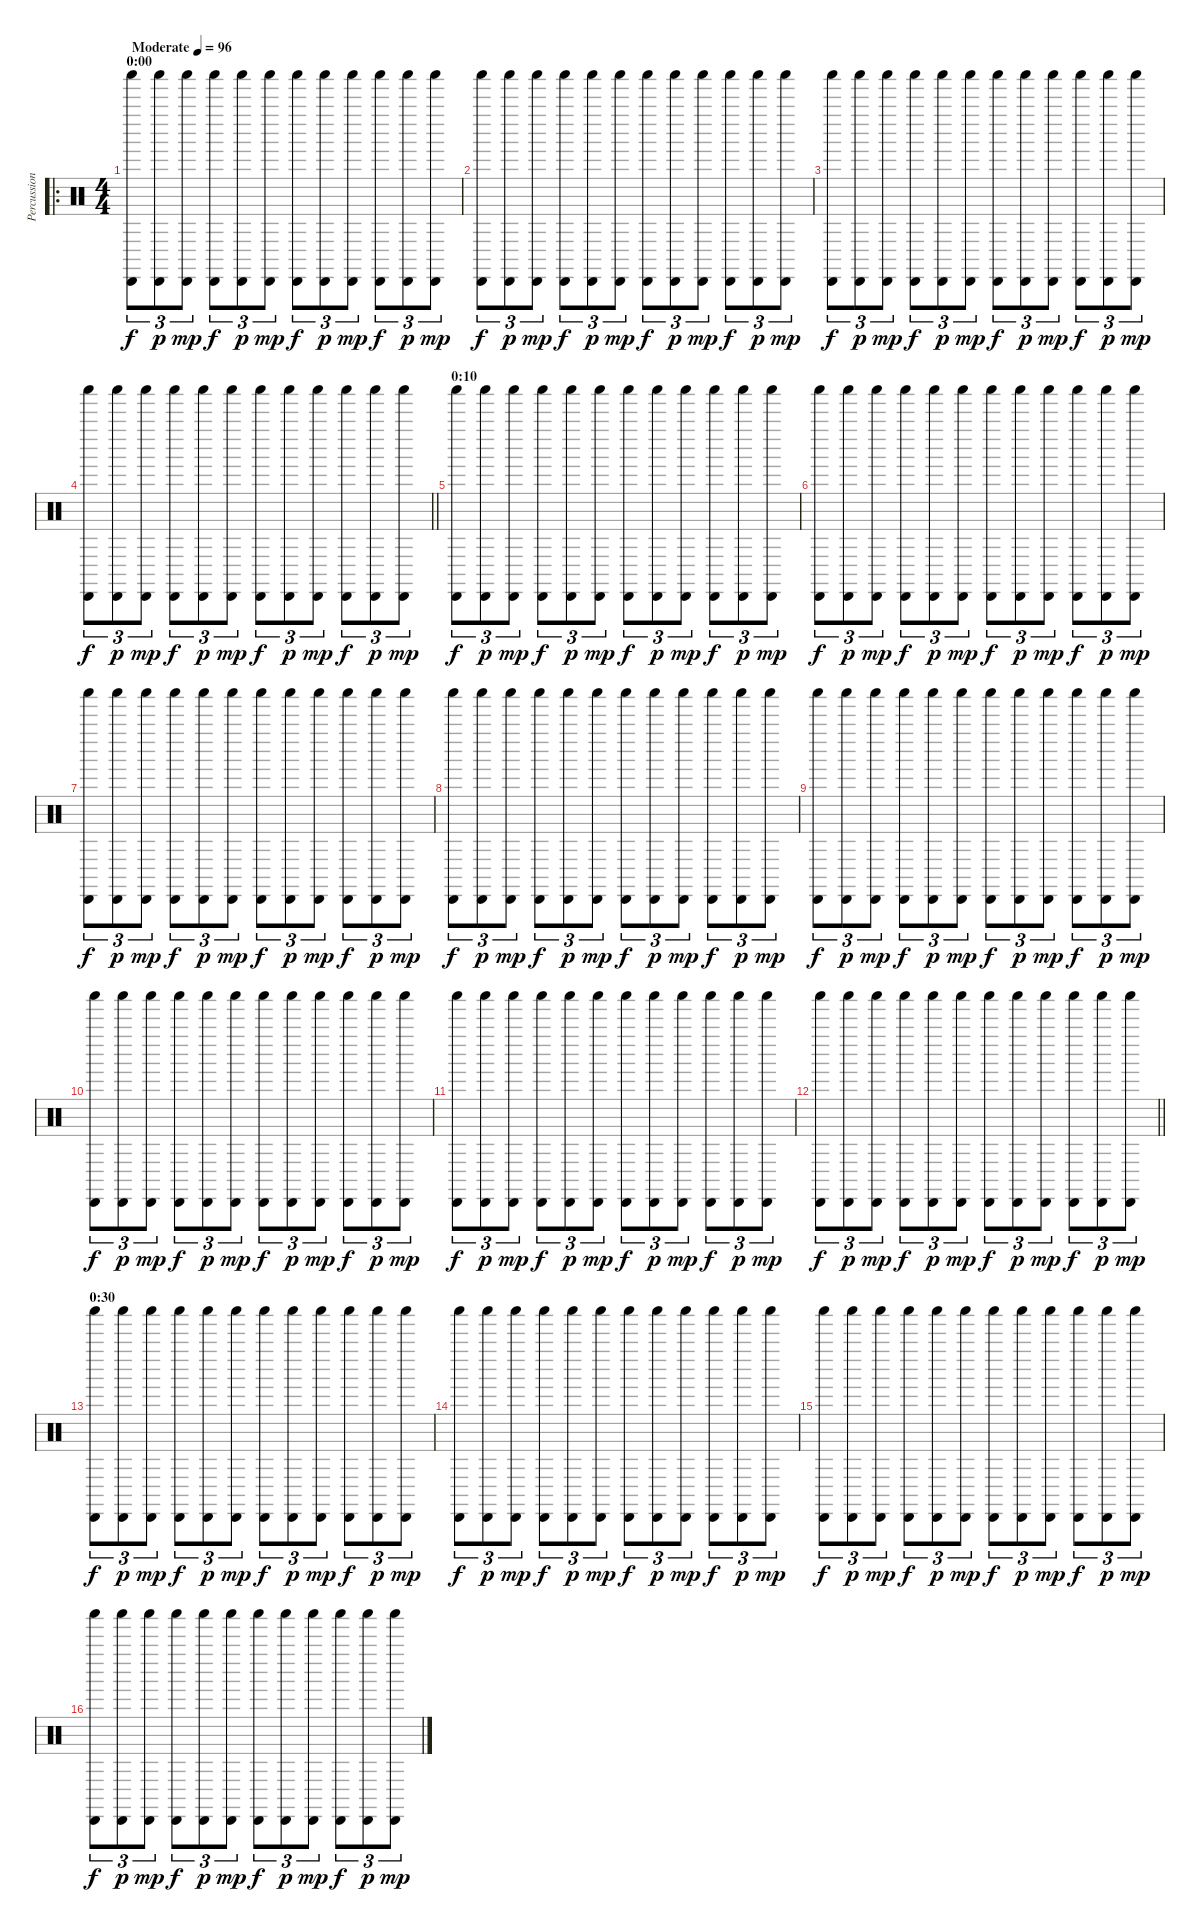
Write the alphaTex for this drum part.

\track ("Percussion" "Percussion") {instrument percussion}
\staff {score}
\articulation defaults
\ro
\ts (4 4)
\section ("" "0:00")
\tempo (96 "Moderate")
\clef neutral
\ks c
("Shaker (hit)" "Cabasa (hit)").8{tu (3 2) dy f} ("Shaker (hit)" "Cabasa (hit)").8{tu (3 2) dy p} ("Shaker (hit)" "Cabasa (hit)").8{tu (3 2) dy mp} ("Shaker (hit)" "Cabasa (hit)").8{tu (3 2) dy f} ("Shaker (hit)" "Cabasa (hit)").8{tu (3 2) dy p} ("Shaker (hit)" "Cabasa (hit)").8{tu (3 2) dy mp} ("Shaker (hit)" "Cabasa (hit)").8{tu (3 2) dy f} ("Shaker (hit)" "Cabasa (hit)").8{tu (3 2) dy p} ("Shaker (hit)" "Cabasa (hit)").8{tu (3 2) dy mp} ("Shaker (hit)" "Cabasa (hit)").8{tu (3 2) dy f} ("Shaker (hit)" "Cabasa (hit)").8{tu (3 2) dy p} ("Shaker (hit)" "Cabasa (hit)").8{tu (3 2) dy mp} |
("Shaker (hit)" "Cabasa (hit)").8{tu (3 2) dy f} ("Shaker (hit)" "Cabasa (hit)").8{tu (3 2) dy p} ("Shaker (hit)" "Cabasa (hit)").8{tu (3 2) dy mp} ("Shaker (hit)" "Cabasa (hit)").8{tu (3 2) dy f} ("Shaker (hit)" "Cabasa (hit)").8{tu (3 2) dy p} ("Shaker (hit)" "Cabasa (hit)").8{tu (3 2) dy mp} ("Shaker (hit)" "Cabasa (hit)").8{tu (3 2) dy f} ("Shaker (hit)" "Cabasa (hit)").8{tu (3 2) dy p} ("Shaker (hit)" "Cabasa (hit)").8{tu (3 2) dy mp} ("Shaker (hit)" "Cabasa (hit)").8{tu (3 2) dy f} ("Shaker (hit)" "Cabasa (hit)").8{tu (3 2) dy p} ("Shaker (hit)" "Cabasa (hit)").8{tu (3 2) dy mp} |
("Shaker (hit)" "Cabasa (hit)").8{tu (3 2) dy f} ("Shaker (hit)" "Cabasa (hit)").8{tu (3 2) dy p} ("Shaker (hit)" "Cabasa (hit)").8{tu (3 2) dy mp} ("Shaker (hit)" "Cabasa (hit)").8{tu (3 2) dy f} ("Shaker (hit)" "Cabasa (hit)").8{tu (3 2) dy p} ("Shaker (hit)" "Cabasa (hit)").8{tu (3 2) dy mp} ("Shaker (hit)" "Cabasa (hit)").8{tu (3 2) dy f} ("Shaker (hit)" "Cabasa (hit)").8{tu (3 2) dy p} ("Shaker (hit)" "Cabasa (hit)").8{tu (3 2) dy mp} ("Shaker (hit)" "Cabasa (hit)").8{tu (3 2) dy f} ("Shaker (hit)" "Cabasa (hit)").8{tu (3 2) dy p} ("Shaker (hit)" "Cabasa (hit)").8{tu (3 2) dy mp} |
\barLineRight lightlight
("Shaker (hit)" "Cabasa (hit)").8{tu (3 2) dy f} ("Shaker (hit)" "Cabasa (hit)").8{tu (3 2) dy p} ("Shaker (hit)" "Cabasa (hit)").8{tu (3 2) dy mp} ("Shaker (hit)" "Cabasa (hit)").8{tu (3 2) dy f} ("Shaker (hit)" "Cabasa (hit)").8{tu (3 2) dy p} ("Shaker (hit)" "Cabasa (hit)").8{tu (3 2) dy mp} ("Shaker (hit)" "Cabasa (hit)").8{tu (3 2) dy f} ("Shaker (hit)" "Cabasa (hit)").8{tu (3 2) dy p} ("Shaker (hit)" "Cabasa (hit)").8{tu (3 2) dy mp} ("Shaker (hit)" "Cabasa (hit)").8{tu (3 2) dy f} ("Shaker (hit)" "Cabasa (hit)").8{tu (3 2) dy p} ("Shaker (hit)" "Cabasa (hit)").8{tu (3 2) dy mp} |
\section ("" "0:10")
("Shaker (hit)" "Cabasa (hit)").8{tu (3 2) dy f} ("Shaker (hit)" "Cabasa (hit)").8{tu (3 2) dy p} ("Shaker (hit)" "Cabasa (hit)").8{tu (3 2) dy mp} ("Shaker (hit)" "Cabasa (hit)").8{tu (3 2) dy f} ("Shaker (hit)" "Cabasa (hit)").8{tu (3 2) dy p} ("Shaker (hit)" "Cabasa (hit)").8{tu (3 2) dy mp} ("Shaker (hit)" "Cabasa (hit)").8{tu (3 2) dy f} ("Shaker (hit)" "Cabasa (hit)").8{tu (3 2) dy p} ("Shaker (hit)" "Cabasa (hit)").8{tu (3 2) dy mp} ("Shaker (hit)" "Cabasa (hit)").8{tu (3 2) dy f} ("Shaker (hit)" "Cabasa (hit)").8{tu (3 2) dy p} ("Shaker (hit)" "Cabasa (hit)").8{tu (3 2) dy mp} |
("Shaker (hit)" "Cabasa (hit)").8{tu (3 2) dy f} ("Shaker (hit)" "Cabasa (hit)").8{tu (3 2) dy p} ("Shaker (hit)" "Cabasa (hit)").8{tu (3 2) dy mp} ("Shaker (hit)" "Cabasa (hit)").8{tu (3 2) dy f} ("Shaker (hit)" "Cabasa (hit)").8{tu (3 2) dy p} ("Shaker (hit)" "Cabasa (hit)").8{tu (3 2) dy mp} ("Shaker (hit)" "Cabasa (hit)").8{tu (3 2) dy f} ("Shaker (hit)" "Cabasa (hit)").8{tu (3 2) dy p} ("Shaker (hit)" "Cabasa (hit)").8{tu (3 2) dy mp} ("Shaker (hit)" "Cabasa (hit)").8{tu (3 2) dy f} ("Shaker (hit)" "Cabasa (hit)").8{tu (3 2) dy p} ("Shaker (hit)" "Cabasa (hit)").8{tu (3 2) dy mp} |
("Shaker (hit)" "Cabasa (hit)").8{tu (3 2) dy f} ("Shaker (hit)" "Cabasa (hit)").8{tu (3 2) dy p} ("Shaker (hit)" "Cabasa (hit)").8{tu (3 2) dy mp} ("Shaker (hit)" "Cabasa (hit)").8{tu (3 2) dy f} ("Shaker (hit)" "Cabasa (hit)").8{tu (3 2) dy p} ("Shaker (hit)" "Cabasa (hit)").8{tu (3 2) dy mp} ("Shaker (hit)" "Cabasa (hit)").8{tu (3 2) dy f} ("Shaker (hit)" "Cabasa (hit)").8{tu (3 2) dy p} ("Shaker (hit)" "Cabasa (hit)").8{tu (3 2) dy mp} ("Shaker (hit)" "Cabasa (hit)").8{tu (3 2) dy f} ("Shaker (hit)" "Cabasa (hit)").8{tu (3 2) dy p} ("Shaker (hit)" "Cabasa (hit)").8{tu (3 2) dy mp} |
("Shaker (hit)" "Cabasa (hit)").8{tu (3 2) dy f} ("Shaker (hit)" "Cabasa (hit)").8{tu (3 2) dy p} ("Shaker (hit)" "Cabasa (hit)").8{tu (3 2) dy mp} ("Shaker (hit)" "Cabasa (hit)").8{tu (3 2) dy f} ("Shaker (hit)" "Cabasa (hit)").8{tu (3 2) dy p} ("Shaker (hit)" "Cabasa (hit)").8{tu (3 2) dy mp} ("Shaker (hit)" "Cabasa (hit)").8{tu (3 2) dy f} ("Shaker (hit)" "Cabasa (hit)").8{tu (3 2) dy p} ("Shaker (hit)" "Cabasa (hit)").8{tu (3 2) dy mp} ("Shaker (hit)" "Cabasa (hit)").8{tu (3 2) dy f} ("Shaker (hit)" "Cabasa (hit)").8{tu (3 2) dy p} ("Shaker (hit)" "Cabasa (hit)").8{tu (3 2) dy mp} |
("Shaker (hit)" "Cabasa (hit)").8{tu (3 2) dy f} ("Shaker (hit)" "Cabasa (hit)").8{tu (3 2) dy p} ("Shaker (hit)" "Cabasa (hit)").8{tu (3 2) dy mp} ("Shaker (hit)" "Cabasa (hit)").8{tu (3 2) dy f} ("Shaker (hit)" "Cabasa (hit)").8{tu (3 2) dy p} ("Shaker (hit)" "Cabasa (hit)").8{tu (3 2) dy mp} ("Shaker (hit)" "Cabasa (hit)").8{tu (3 2) dy f} ("Shaker (hit)" "Cabasa (hit)").8{tu (3 2) dy p} ("Shaker (hit)" "Cabasa (hit)").8{tu (3 2) dy mp} ("Shaker (hit)" "Cabasa (hit)").8{tu (3 2) dy f} ("Shaker (hit)" "Cabasa (hit)").8{tu (3 2) dy p} ("Shaker (hit)" "Cabasa (hit)").8{tu (3 2) dy mp} |
("Shaker (hit)" "Cabasa (hit)").8{tu (3 2) dy f} ("Shaker (hit)" "Cabasa (hit)").8{tu (3 2) dy p} ("Shaker (hit)" "Cabasa (hit)").8{tu (3 2) dy mp} ("Shaker (hit)" "Cabasa (hit)").8{tu (3 2) dy f} ("Shaker (hit)" "Cabasa (hit)").8{tu (3 2) dy p} ("Shaker (hit)" "Cabasa (hit)").8{tu (3 2) dy mp} ("Shaker (hit)" "Cabasa (hit)").8{tu (3 2) dy f} ("Shaker (hit)" "Cabasa (hit)").8{tu (3 2) dy p} ("Shaker (hit)" "Cabasa (hit)").8{tu (3 2) dy mp} ("Shaker (hit)" "Cabasa (hit)").8{tu (3 2) dy f} ("Shaker (hit)" "Cabasa (hit)").8{tu (3 2) dy p} ("Shaker (hit)" "Cabasa (hit)").8{tu (3 2) dy mp} |
("Shaker (hit)" "Cabasa (hit)").8{tu (3 2) dy f} ("Shaker (hit)" "Cabasa (hit)").8{tu (3 2) dy p} ("Shaker (hit)" "Cabasa (hit)").8{tu (3 2) dy mp} ("Shaker (hit)" "Cabasa (hit)").8{tu (3 2) dy f} ("Shaker (hit)" "Cabasa (hit)").8{tu (3 2) dy p} ("Shaker (hit)" "Cabasa (hit)").8{tu (3 2) dy mp} ("Shaker (hit)" "Cabasa (hit)").8{tu (3 2) dy f} ("Shaker (hit)" "Cabasa (hit)").8{tu (3 2) dy p} ("Shaker (hit)" "Cabasa (hit)").8{tu (3 2) dy mp} ("Shaker (hit)" "Cabasa (hit)").8{tu (3 2) dy f} ("Shaker (hit)" "Cabasa (hit)").8{tu (3 2) dy p} ("Shaker (hit)" "Cabasa (hit)").8{tu (3 2) dy mp} |
\barLineRight lightlight
("Shaker (hit)" "Cabasa (hit)").8{tu (3 2) dy f} ("Shaker (hit)" "Cabasa (hit)").8{tu (3 2) dy p} ("Shaker (hit)" "Cabasa (hit)").8{tu (3 2) dy mp} ("Shaker (hit)" "Cabasa (hit)").8{tu (3 2) dy f} ("Shaker (hit)" "Cabasa (hit)").8{tu (3 2) dy p} ("Shaker (hit)" "Cabasa (hit)").8{tu (3 2) dy mp} ("Shaker (hit)" "Cabasa (hit)").8{tu (3 2) dy f} ("Shaker (hit)" "Cabasa (hit)").8{tu (3 2) dy p} ("Shaker (hit)" "Cabasa (hit)").8{tu (3 2) dy mp} ("Shaker (hit)" "Cabasa (hit)").8{tu (3 2) dy f} ("Shaker (hit)" "Cabasa (hit)").8{tu (3 2) dy p} ("Shaker (hit)" "Cabasa (hit)").8{tu (3 2) dy mp} |
\section ("" "0:30")
("Shaker (hit)" "Cabasa (hit)").8{tu (3 2) dy f} ("Shaker (hit)" "Cabasa (hit)").8{tu (3 2) dy p} ("Shaker (hit)" "Cabasa (hit)").8{tu (3 2) dy mp} ("Shaker (hit)" "Cabasa (hit)").8{tu (3 2) dy f} ("Shaker (hit)" "Cabasa (hit)").8{tu (3 2) dy p} ("Shaker (hit)" "Cabasa (hit)").8{tu (3 2) dy mp} ("Shaker (hit)" "Cabasa (hit)").8{tu (3 2) dy f} ("Shaker (hit)" "Cabasa (hit)").8{tu (3 2) dy p} ("Shaker (hit)" "Cabasa (hit)").8{tu (3 2) dy mp} ("Shaker (hit)" "Cabasa (hit)").8{tu (3 2) dy f} ("Shaker (hit)" "Cabasa (hit)").8{tu (3 2) dy p} ("Shaker (hit)" "Cabasa (hit)").8{tu (3 2) dy mp} |
("Shaker (hit)" "Cabasa (hit)").8{tu (3 2) dy f} ("Shaker (hit)" "Cabasa (hit)").8{tu (3 2) dy p} ("Shaker (hit)" "Cabasa (hit)").8{tu (3 2) dy mp} ("Shaker (hit)" "Cabasa (hit)").8{tu (3 2) dy f} ("Shaker (hit)" "Cabasa (hit)").8{tu (3 2) dy p} ("Shaker (hit)" "Cabasa (hit)").8{tu (3 2) dy mp} ("Shaker (hit)" "Cabasa (hit)").8{tu (3 2) dy f} ("Shaker (hit)" "Cabasa (hit)").8{tu (3 2) dy p} ("Shaker (hit)" "Cabasa (hit)").8{tu (3 2) dy mp} ("Shaker (hit)" "Cabasa (hit)").8{tu (3 2) dy f} ("Shaker (hit)" "Cabasa (hit)").8{tu (3 2) dy p} ("Shaker (hit)" "Cabasa (hit)").8{tu (3 2) dy mp} |
("Shaker (hit)" "Cabasa (hit)").8{tu (3 2) dy f} ("Shaker (hit)" "Cabasa (hit)").8{tu (3 2) dy p} ("Shaker (hit)" "Cabasa (hit)").8{tu (3 2) dy mp} ("Shaker (hit)" "Cabasa (hit)").8{tu (3 2) dy f} ("Shaker (hit)" "Cabasa (hit)").8{tu (3 2) dy p} ("Shaker (hit)" "Cabasa (hit)").8{tu (3 2) dy mp} ("Shaker (hit)" "Cabasa (hit)").8{tu (3 2) dy f} ("Shaker (hit)" "Cabasa (hit)").8{tu (3 2) dy p} ("Shaker (hit)" "Cabasa (hit)").8{tu (3 2) dy mp} ("Shaker (hit)" "Cabasa (hit)").8{tu (3 2) dy f} ("Shaker (hit)" "Cabasa (hit)").8{tu (3 2) dy p} ("Shaker (hit)" "Cabasa (hit)").8{tu (3 2) dy mp} |
("Shaker (hit)" "Cabasa (hit)").8{tu (3 2) dy f} ("Shaker (hit)" "Cabasa (hit)").8{tu (3 2) dy p} ("Shaker (hit)" "Cabasa (hit)").8{tu (3 2) dy mp} ("Shaker (hit)" "Cabasa (hit)").8{tu (3 2) dy f} ("Shaker (hit)" "Cabasa (hit)").8{tu (3 2) dy p} ("Shaker (hit)" "Cabasa (hit)").8{tu (3 2) dy mp} ("Shaker (hit)" "Cabasa (hit)").8{tu (3 2) dy f} ("Shaker (hit)" "Cabasa (hit)").8{tu (3 2) dy p} ("Shaker (hit)" "Cabasa (hit)").8{tu (3 2) dy mp} ("Shaker (hit)" "Cabasa (hit)").8{tu (3 2) dy f} ("Shaker (hit)" "Cabasa (hit)").8{tu (3 2) dy p} ("Shaker (hit)" "Cabasa (hit)").8{tu (3 2) dy mp}
